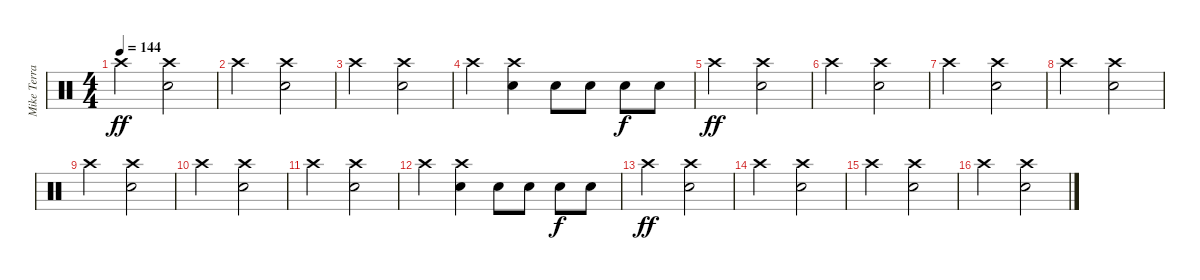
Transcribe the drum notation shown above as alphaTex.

\track ("Mike Terrana" "Mike Terra") {instrument percussion}
\staff {score}
\articulation defaults
\ts (4 4)
\tempo 144
\clef neutral
\ks c "Crash high (hit)".2{dy ff}
("Snare (hit) 2" "Crash high (hit)").2 |
"Crash high (hit)".2 ("Snare (hit) 2" "Crash high (hit)").2 |
"Crash high (hit)".2 ("Snare (hit) 2" "Crash high (hit)").2 |
"Crash high (hit)".4 ("Snare (hit) 2" "Crash high (hit)").4 "Snare (hit) 2".8 "Snare (hit) 2".8 "Snare (hit) 2".8{dy f} "Snare (hit) 2".8 |
"Crash high (hit)".2{dy ff} ("Snare (hit) 2" "Crash high (hit)").2 |
"Crash high (hit)".2 ("Snare (hit) 2" "Crash high (hit)").2 |
"Crash high (hit)".2 ("Snare (hit) 2" "Crash high (hit)").2 |
"Crash high (hit)".2 ("Snare (hit) 2" "Crash high (hit)").2 |
"Crash high (hit)".2 ("Snare (hit) 2" "Crash high (hit)").2 |
"Crash high (hit)".2 ("Snare (hit) 2" "Crash high (hit)").2 |
"Crash high (hit)".2 ("Snare (hit) 2" "Crash high (hit)").2 |
"Crash high (hit)".4 ("Snare (hit) 2" "Crash high (hit)").4 "Snare (hit) 2".8 "Snare (hit) 2".8 "Snare (hit) 2".8{dy f} "Snare (hit) 2".8 |
"Crash high (hit)".2{dy ff} ("Snare (hit) 2" "Crash high (hit)").2 |
"Crash high (hit)".2 ("Snare (hit) 2" "Crash high (hit)").2 |
"Crash high (hit)".2 ("Snare (hit) 2" "Crash high (hit)").2 |
"Crash high (hit)".2 ("Snare (hit) 2" "Crash high (hit)").2
